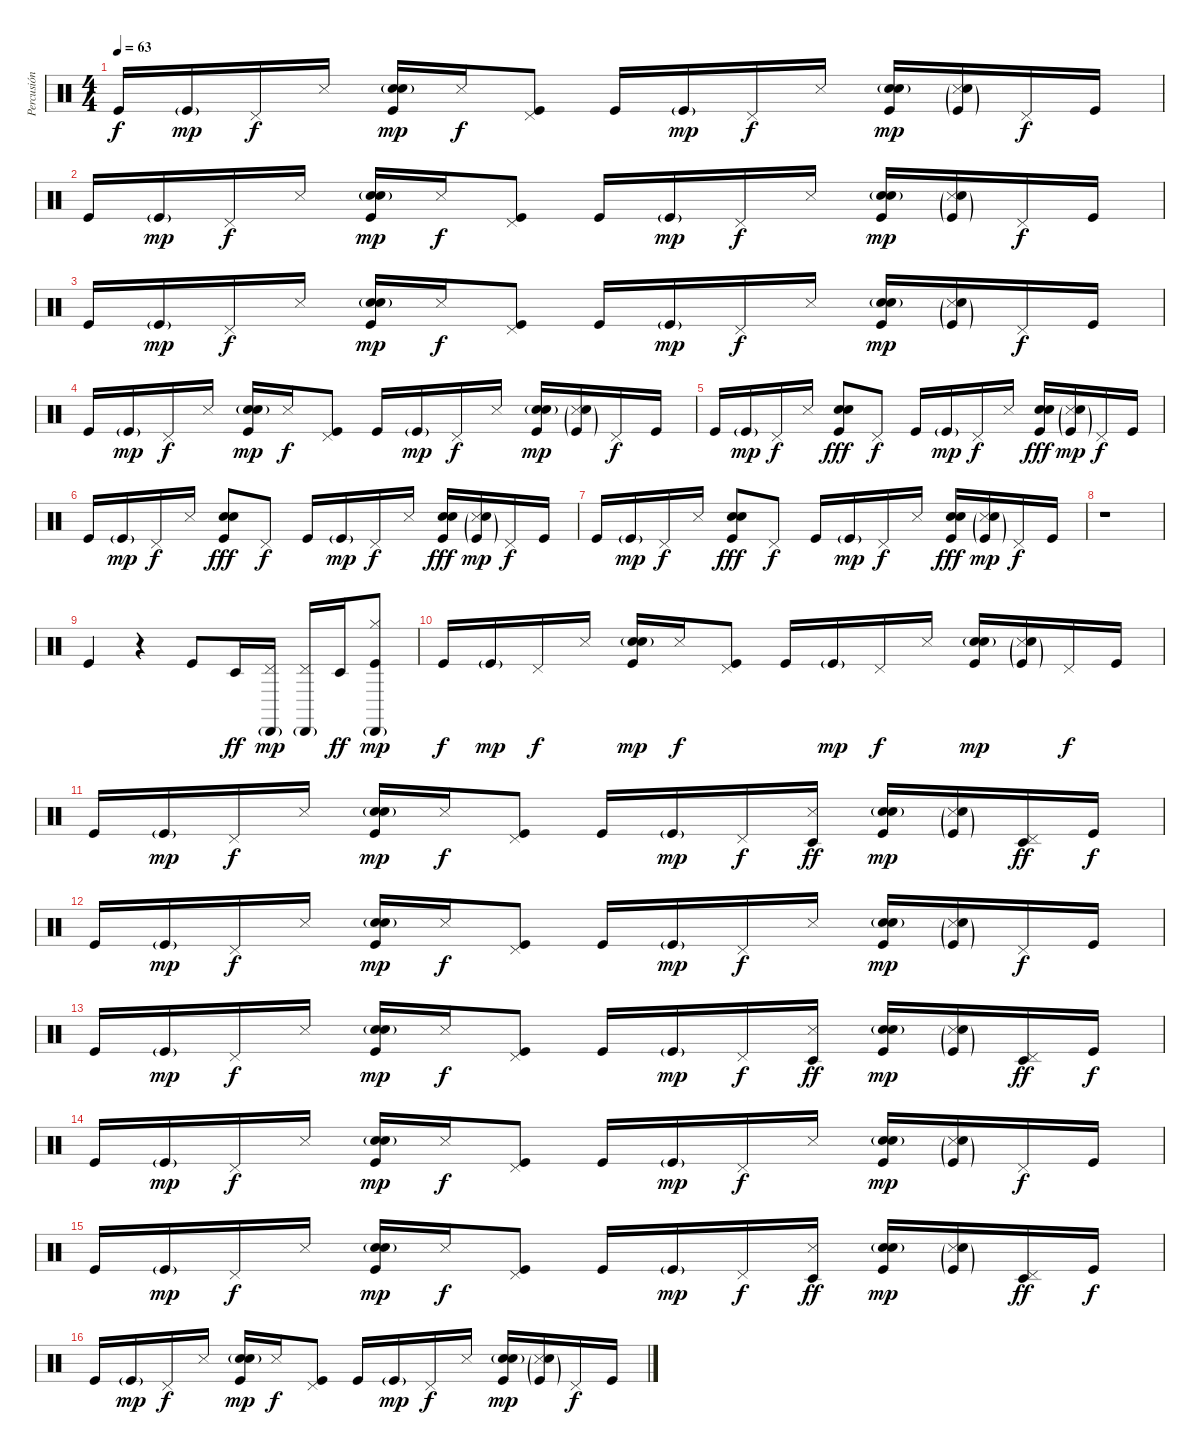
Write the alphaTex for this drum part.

\track ("Percusión" "Percusión") {instrument percussion}
\staff {score}
\articulation defaults
\ts (4 4)
\tempo 63
\clef neutral
\ks c "Kick (hit)".16{dy f} "Kick (hit)"{g}.16{dy mp} "Pedal Hi-Hat (hit)".16{dy f} "Snare (side stick) 3".16
("Kick (hit)" "Snare (hit) 2"{g} "Hand Clap (hit)").16{dy mp} "Snare (side stick) 3".16{dy f} ("Kick (hit)" "Pedal Hi-Hat (hit)").8 "Kick (hit)".16 "Kick (hit)"{g}.16{dy mp} "Pedal Hi-Hat (hit)".16{dy f} "Snare (side stick) 3".16 ("Kick (hit)" "Snare (hit) 2"{g} "Hand Clap (hit)").16{dy mp} ("Kick (hit)"{g} "Snare (side stick) 3" "Hand Clap (hit)"{g}).16 "Pedal Hi-Hat (hit)".16{dy f} "Kick (hit)".16 |
"Kick (hit)".16 "Kick (hit)"{g}.16{dy mp} "Pedal Hi-Hat (hit)".16{dy f} "Snare (side stick) 3".16 ("Kick (hit)" "Snare (hit) 2"{g} "Hand Clap (hit)").16{dy mp} "Snare (side stick) 3".16{dy f} ("Kick (hit)" "Pedal Hi-Hat (hit)").8 "Kick (hit)".16 "Kick (hit)"{g}.16{dy mp} "Pedal Hi-Hat (hit)".16{dy f} "Snare (side stick) 3".16 ("Kick (hit)" "Snare (hit) 2"{g} "Hand Clap (hit)").16{dy mp} ("Kick (hit)"{g} "Snare (side stick) 3" "Hand Clap (hit)"{g}).16 "Pedal Hi-Hat (hit)".16{dy f} "Kick (hit)".16 |
"Kick (hit)".16 "Kick (hit)"{g}.16{dy mp} "Pedal Hi-Hat (hit)".16{dy f} "Snare (side stick) 3".16 ("Kick (hit)" "Snare (hit) 2"{g} "Hand Clap (hit)").16{dy mp} "Snare (side stick) 3".16{dy f} ("Kick (hit)" "Pedal Hi-Hat (hit)").8 "Kick (hit)".16 "Kick (hit)"{g}.16{dy mp} "Pedal Hi-Hat (hit)".16{dy f} "Snare (side stick) 3".16 ("Kick (hit)" "Snare (hit) 2"{g} "Hand Clap (hit)").16{dy mp} ("Kick (hit)"{g} "Snare (side stick) 3" "Hand Clap (hit)"{g}).16 "Pedal Hi-Hat (hit)".16{dy f} "Kick (hit)".16 |
"Kick (hit)".16 "Kick (hit)"{g}.16{dy mp} "Pedal Hi-Hat (hit)".16{dy f} "Snare (side stick) 3".16 ("Kick (hit)" "Snare (hit) 2"{g} "Hand Clap (hit)").16{dy mp} "Snare (side stick) 3".16{dy f} ("Kick (hit)" "Pedal Hi-Hat (hit)").8 "Kick (hit)".16 "Kick (hit)"{g}.16{dy mp} "Pedal Hi-Hat (hit)".16{dy f} "Snare (side stick) 3".16 ("Kick (hit)" "Snare (hit) 2"{g} "Hand Clap (hit)").16{dy mp} ("Kick (hit)"{g} "Snare (side stick) 3" "Hand Clap (hit)"{g}).16 "Pedal Hi-Hat (hit)".16{dy f} "Kick (hit)".16 |
"Kick (hit)".16 "Kick (hit)"{g}.16{dy mp} "Pedal Hi-Hat (hit)".16{dy f} "Snare (side stick) 3".16 ("Kick (hit)" "Snare (hit) 2" "Hand Clap (hit)").8{dy fff} "Pedal Hi-Hat (hit)".8{dy f} "Kick (hit)".16 "Kick (hit)"{g}.16{dy mp} "Pedal Hi-Hat (hit)".16{dy f} "Snare (side stick) 3".16 ("Kick (hit)" "Snare (hit) 2" "Hand Clap (hit)").16{dy fff} ("Kick (hit)"{g} "Snare (side stick) 3" "Hand Clap (hit)"{g}).16{dy mp} "Pedal Hi-Hat (hit)".16{dy f} "Kick (hit)".16 |
"Kick (hit)".16 "Kick (hit)"{g}.16{dy mp} "Pedal Hi-Hat (hit)".16{dy f} "Snare (side stick) 3".16 ("Kick (hit)" "Snare (hit) 2" "Hand Clap (hit)").8{dy fff} "Pedal Hi-Hat (hit)".8{dy f} "Kick (hit)".16 "Kick (hit)"{g}.16{dy mp} "Pedal Hi-Hat (hit)".16{dy f} "Snare (side stick) 3".16 ("Kick (hit)" "Snare (hit) 2" "Hand Clap (hit)").16{dy fff} ("Kick (hit)"{g} "Snare (side stick) 3" "Hand Clap (hit)"{g}).16{dy mp} "Pedal Hi-Hat (hit)".16{dy f} "Kick (hit)".16 |
"Kick (hit)".16 "Kick (hit)"{g}.16{dy mp} "Pedal Hi-Hat (hit)".16{dy f} "Snare (side stick) 3".16 ("Kick (hit)" "Snare (hit) 2" "Hand Clap (hit)").8{dy fff} "Pedal Hi-Hat (hit)".8{dy f} "Kick (hit)".16 "Kick (hit)"{g}.16{dy mp} "Pedal Hi-Hat (hit)".16{dy f} "Snare (side stick) 3".16 ("Kick (hit)" "Snare (hit) 2" "Hand Clap (hit)").16{dy fff} ("Kick (hit)"{g} "Snare (side stick) 3" "Hand Clap (hit)"{g}).16{dy mp} "Pedal Hi-Hat (hit)".16{dy f} "Kick (hit)".16 |
r.1 |
"Kick (hit)".4 r.4 "Kick (hit)".8 "Timbale low (hit)".16{dy ff} ("Cabasa (hit)"{g} "Pedal Hi-Hat (hit)").16{dy mp} ("Cabasa (hit)"{g} "Pedal Hi-Hat (hit)").16 "Timbale low (hit)".16{dy ff} ("Kick (hit)" "Cabasa (hit)"{g} "Hi-Hat (closed)").8{dy mp} |
"Kick (hit)".16{dy f} "Kick (hit)"{g}.16{dy mp} "Pedal Hi-Hat (hit)".16{dy f} "Snare (side stick) 3".16 ("Kick (hit)" "Snare (hit) 2"{g} "Hand Clap (hit)").16{dy mp} "Snare (side stick) 3".16{dy f} ("Kick (hit)" "Pedal Hi-Hat (hit)").8 "Kick (hit)".16 "Kick (hit)"{g}.16{dy mp} "Pedal Hi-Hat (hit)".16{dy f} "Snare (side stick) 3".16 ("Kick (hit)" "Snare (hit) 2"{g} "Hand Clap (hit)").16{dy mp} ("Kick (hit)"{g} "Snare (side stick) 3" "Hand Clap (hit)"{g}).16 "Pedal Hi-Hat (hit)".16{dy f} "Kick (hit)".16 |
"Kick (hit)".16 "Kick (hit)"{g}.16{dy mp} "Pedal Hi-Hat (hit)".16{dy f} "Snare (side stick) 3".16 ("Kick (hit)" "Snare (hit) 2"{g} "Hand Clap (hit)").16{dy mp} "Snare (side stick) 3".16{dy f} ("Kick (hit)" "Pedal Hi-Hat (hit)").8 "Kick (hit)".16 "Kick (hit)"{g}.16{dy mp} "Pedal Hi-Hat (hit)".16{dy f} ("Timbale low (hit)" "Snare (side stick) 3").16{dy ff} ("Kick (hit)" "Snare (hit) 2"{g} "Hand Clap (hit)").16{dy mp} ("Kick (hit)"{g} "Snare (side stick) 3" "Hand Clap (hit)"{g}).16 ("Timbale low (hit)" "Pedal Hi-Hat (hit)").16{dy ff} "Kick (hit)".16{dy f} |
"Kick (hit)".16 "Kick (hit)"{g}.16{dy mp} "Pedal Hi-Hat (hit)".16{dy f} "Snare (side stick) 3".16 ("Kick (hit)" "Snare (hit) 2"{g} "Hand Clap (hit)").16{dy mp} "Snare (side stick) 3".16{dy f} ("Kick (hit)" "Pedal Hi-Hat (hit)").8 "Kick (hit)".16 "Kick (hit)"{g}.16{dy mp} "Pedal Hi-Hat (hit)".16{dy f} "Snare (side stick) 3".16 ("Kick (hit)" "Snare (hit) 2"{g} "Hand Clap (hit)").16{dy mp} ("Kick (hit)"{g} "Snare (side stick) 3" "Hand Clap (hit)"{g}).16 "Pedal Hi-Hat (hit)".16{dy f} "Kick (hit)".16 |
"Kick (hit)".16 "Kick (hit)"{g}.16{dy mp} "Pedal Hi-Hat (hit)".16{dy f} "Snare (side stick) 3".16 ("Kick (hit)" "Snare (hit) 2"{g} "Hand Clap (hit)").16{dy mp} "Snare (side stick) 3".16{dy f} ("Kick (hit)" "Pedal Hi-Hat (hit)").8 "Kick (hit)".16 "Kick (hit)"{g}.16{dy mp} "Pedal Hi-Hat (hit)".16{dy f} ("Timbale low (hit)" "Snare (side stick) 3").16{dy ff} ("Kick (hit)" "Snare (hit) 2"{g} "Hand Clap (hit)").16{dy mp} ("Kick (hit)"{g} "Snare (side stick) 3" "Hand Clap (hit)"{g}).16 ("Timbale low (hit)" "Pedal Hi-Hat (hit)").16{dy ff} "Kick (hit)".16{dy f} |
"Kick (hit)".16 "Kick (hit)"{g}.16{dy mp} "Pedal Hi-Hat (hit)".16{dy f} "Snare (side stick) 3".16 ("Kick (hit)" "Snare (hit) 2"{g} "Hand Clap (hit)").16{dy mp} "Snare (side stick) 3".16{dy f} ("Kick (hit)" "Pedal Hi-Hat (hit)").8 "Kick (hit)".16 "Kick (hit)"{g}.16{dy mp} "Pedal Hi-Hat (hit)".16{dy f} "Snare (side stick) 3".16 ("Kick (hit)" "Snare (hit) 2"{g} "Hand Clap (hit)").16{dy mp} ("Kick (hit)"{g} "Snare (side stick) 3" "Hand Clap (hit)"{g}).16 "Pedal Hi-Hat (hit)".16{dy f} "Kick (hit)".16 |
"Kick (hit)".16 "Kick (hit)"{g}.16{dy mp} "Pedal Hi-Hat (hit)".16{dy f} "Snare (side stick) 3".16 ("Kick (hit)" "Snare (hit) 2"{g} "Hand Clap (hit)").16{dy mp} "Snare (side stick) 3".16{dy f} ("Kick (hit)" "Pedal Hi-Hat (hit)").8 "Kick (hit)".16 "Kick (hit)"{g}.16{dy mp} "Pedal Hi-Hat (hit)".16{dy f} ("Timbale low (hit)" "Snare (side stick) 3").16{dy ff} ("Kick (hit)" "Snare (hit) 2"{g} "Hand Clap (hit)").16{dy mp} ("Kick (hit)"{g} "Snare (side stick) 3" "Hand Clap (hit)"{g}).16 ("Timbale low (hit)" "Pedal Hi-Hat (hit)").16{dy ff} "Kick (hit)".16{dy f} |
"Kick (hit)".16 "Kick (hit)"{g}.16{dy mp} "Pedal Hi-Hat (hit)".16{dy f} "Snare (side stick) 3".16 ("Kick (hit)" "Snare (hit) 2"{g} "Hand Clap (hit)").16{dy mp} "Snare (side stick) 3".16{dy f} ("Kick (hit)" "Pedal Hi-Hat (hit)").8 "Kick (hit)".16 "Kick (hit)"{g}.16{dy mp} "Pedal Hi-Hat (hit)".16{dy f} "Snare (side stick) 3".16 ("Kick (hit)" "Snare (hit) 2"{g} "Hand Clap (hit)").16{dy mp} ("Kick (hit)"{g} "Snare (side stick) 3" "Hand Clap (hit)"{g}).16 "Pedal Hi-Hat (hit)".16{dy f} "Kick (hit)".16
